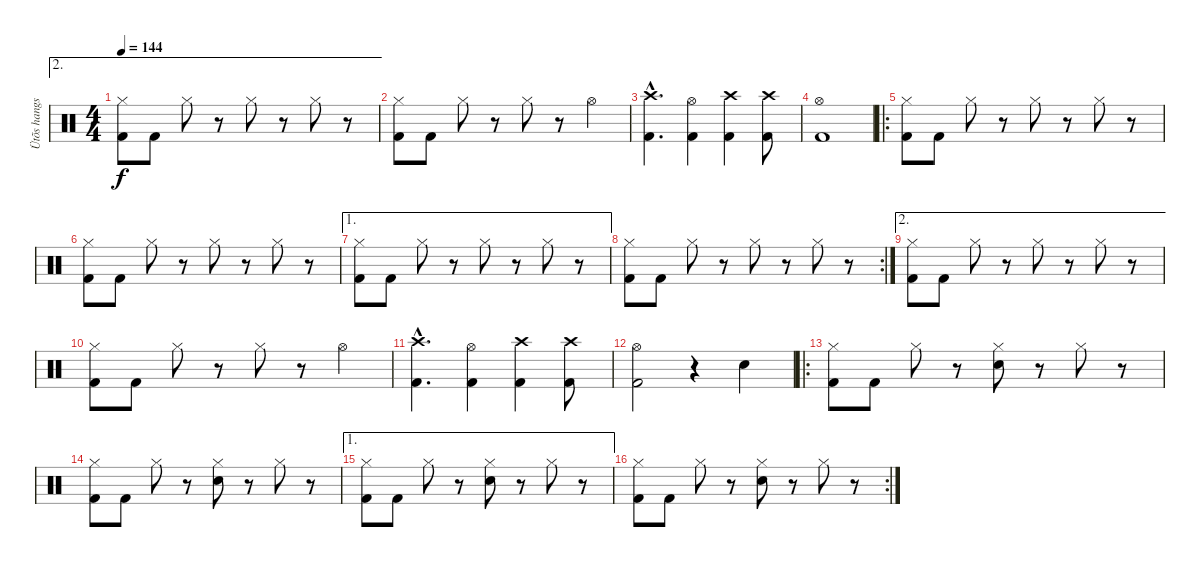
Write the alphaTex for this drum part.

\track ("Ütõs hangszer" "Ütõs hangs") {instrument percussion}
\staff {score}
\articulation defaults
\ae 2
\ts (4 4)
\tempo 144
\clef neutral
\ks c
("Hi-Hat (closed)" "Kick (hit) 2").8{dy f} "Kick (hit) 2".8 "Hi-Hat (closed)".8 r.8 "Hi-Hat (closed)".8 r.8 "Hi-Hat (closed)".8 r.8 |
("Hi-Hat (closed)" "Kick (hit) 2").8 "Kick (hit) 2".8 "Hi-Hat (closed)".8 r.8 "Hi-Hat (closed)".8 r.8 "Hi-Hat (open)".4 |
("Crash high (hit)"{hac} "Kick (hit) 2"{hac}).4{d} ("Hi-Hat (open)" "Kick (hit) 2").4 ("Crash high (hit)" "Kick (hit) 2").4 ("Crash high (hit)" "Kick (hit) 2").8 |
("Hi-Hat (open)" "Kick (hit) 2").1 |
\ro
("Hi-Hat (closed)" "Kick (hit) 2").8 "Kick (hit) 2".8 "Hi-Hat (closed)".8 r.8 "Hi-Hat (closed)".8 r.8 "Hi-Hat (closed)".8 r.8 |
("Hi-Hat (closed)" "Kick (hit) 2").8 "Kick (hit) 2".8 "Hi-Hat (closed)".8 r.8 "Hi-Hat (closed)".8 r.8 "Hi-Hat (closed)".8 r.8 |
\ae 1
("Hi-Hat (closed)" "Kick (hit) 2").8 "Kick (hit) 2".8 "Hi-Hat (closed)".8 r.8 "Hi-Hat (closed)".8 r.8 "Hi-Hat (closed)".8 r.8 |
\rc 2
("Hi-Hat (closed)" "Kick (hit) 2").8 "Kick (hit) 2".8 "Hi-Hat (closed)".8 r.8 "Hi-Hat (closed)".8 r.8 "Hi-Hat (closed)".8 r.8 |
\ae 2
("Hi-Hat (closed)" "Kick (hit) 2").8 "Kick (hit) 2".8 "Hi-Hat (closed)".8 r.8 "Hi-Hat (closed)".8 r.8 "Hi-Hat (closed)".8 r.8 |
("Hi-Hat (closed)" "Kick (hit) 2").8 "Kick (hit) 2".8 "Hi-Hat (closed)".8 r.8 "Hi-Hat (closed)".8 r.8 "Hi-Hat (open)".4 |
("Crash high (hit)"{hac} "Kick (hit) 2"{hac}).4{d} ("Hi-Hat (open)" "Kick (hit) 2").4 ("Crash high (hit)" "Kick (hit) 2").4 ("Crash high (hit)" "Kick (hit) 2").8 |
("Hi-Hat (open)" "Kick (hit) 2").2 r.4 "Snare (hit) 2".4 |
\ro
("Hi-Hat (closed)" "Kick (hit) 2").8 "Kick (hit) 2".8 "Hi-Hat (closed)".8 r.8 ("Hi-Hat (closed)" "Snare (hit) 2").8 r.8 "Hi-Hat (closed)".8 r.8 |
("Hi-Hat (closed)" "Kick (hit) 2").8 "Kick (hit) 2".8 "Hi-Hat (closed)".8 r.8 ("Hi-Hat (closed)" "Snare (hit) 2").8 r.8 "Hi-Hat (closed)".8 r.8 |
\ae 1
("Hi-Hat (closed)" "Kick (hit) 2").8 "Kick (hit) 2".8 "Hi-Hat (closed)".8 r.8 ("Hi-Hat (closed)" "Snare (hit) 2").8 r.8 "Hi-Hat (closed)".8 r.8 |
\rc 2
("Hi-Hat (closed)" "Kick (hit) 2").8 "Kick (hit) 2".8 "Hi-Hat (closed)".8 r.8 ("Hi-Hat (closed)" "Snare (hit) 2").8 r.8 "Hi-Hat (closed)".8 r.8
